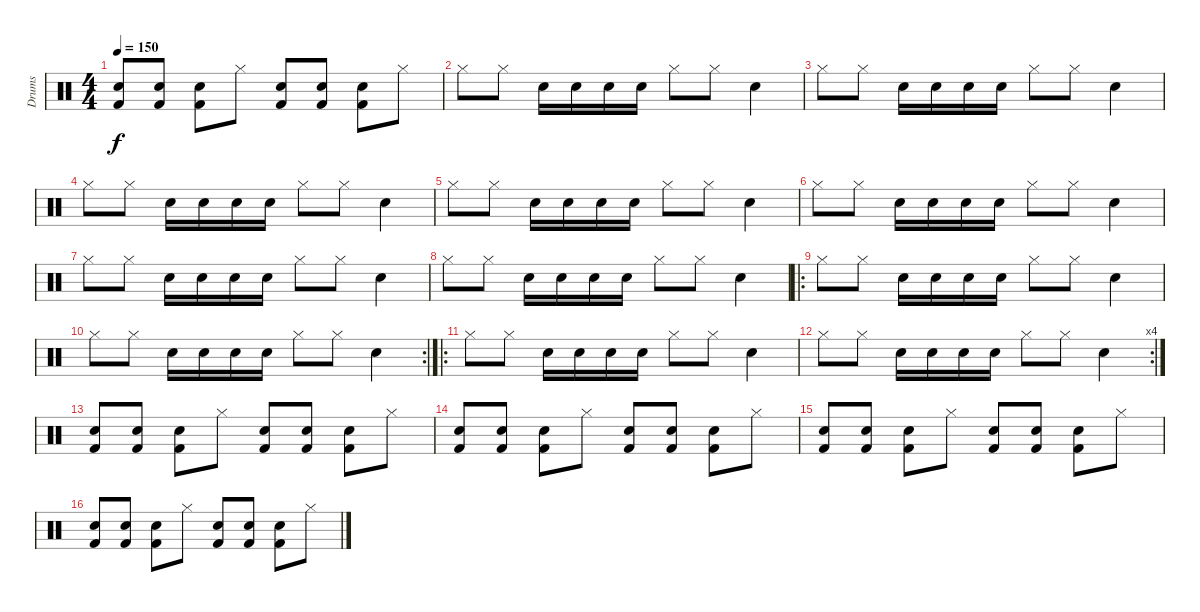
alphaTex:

\track ("Drums" "Drums") {instrument percussion}
\staff {score}
\articulation defaults
\ts (4 4)
\tempo 150
\clef neutral
\ks c
("Snare (hit) 2" "Kick (hit) 2").8{dy f} ("Snare (hit) 2" "Kick (hit) 2").8 ("Snare (hit) 2" "Kick (hit) 2").8 "Hi-Hat (closed)".8 ("Snare (hit) 2" "Kick (hit) 2").8 ("Snare (hit) 2" "Kick (hit) 2").8 ("Snare (hit) 2" "Kick (hit) 2").8 "Hi-Hat (closed)".8 |
"Hi-Hat (closed)".8 "Hi-Hat (closed)".8 "Snare (hit) 2".16 "Snare (hit) 2".16 "Snare (hit) 2".16 "Snare (hit) 2".16 "Hi-Hat (closed)".8 "Hi-Hat (closed)".8 "Snare (hit) 2".4 |
"Hi-Hat (closed)".8 "Hi-Hat (closed)".8 "Snare (hit) 2".16 "Snare (hit) 2".16 "Snare (hit) 2".16 "Snare (hit) 2".16 "Hi-Hat (closed)".8 "Hi-Hat (closed)".8 "Snare (hit) 2".4 |
"Hi-Hat (closed)".8 "Hi-Hat (closed)".8 "Snare (hit) 2".16 "Snare (hit) 2".16 "Snare (hit) 2".16 "Snare (hit) 2".16 "Hi-Hat (closed)".8 "Hi-Hat (closed)".8 "Snare (hit) 2".4 |
"Hi-Hat (closed)".8 "Hi-Hat (closed)".8 "Snare (hit) 2".16 "Snare (hit) 2".16 "Snare (hit) 2".16 "Snare (hit) 2".16 "Hi-Hat (closed)".8 "Hi-Hat (closed)".8 "Snare (hit) 2".4 |
"Hi-Hat (closed)".8 "Hi-Hat (closed)".8 "Snare (hit) 2".16 "Snare (hit) 2".16 "Snare (hit) 2".16 "Snare (hit) 2".16 "Hi-Hat (closed)".8 "Hi-Hat (closed)".8 "Snare (hit) 2".4 |
"Hi-Hat (closed)".8 "Hi-Hat (closed)".8 "Snare (hit) 2".16 "Snare (hit) 2".16 "Snare (hit) 2".16 "Snare (hit) 2".16 "Hi-Hat (closed)".8 "Hi-Hat (closed)".8 "Snare (hit) 2".4 |
"Hi-Hat (closed)".8 "Hi-Hat (closed)".8 "Snare (hit) 2".16 "Snare (hit) 2".16 "Snare (hit) 2".16 "Snare (hit) 2".16 "Hi-Hat (closed)".8 "Hi-Hat (closed)".8 "Snare (hit) 2".4 |
\ro "Hi-Hat (closed)".8 "Hi-Hat (closed)".8 "Snare (hit) 2".16 "Snare (hit) 2".16 "Snare (hit) 2".16 "Snare (hit) 2".16 "Hi-Hat (closed)".8 "Hi-Hat (closed)".8 "Snare (hit) 2".4
|
\rc 2 "Hi-Hat (closed)".8 "Hi-Hat (closed)".8 "Snare (hit) 2".16 "Snare (hit) 2".16 "Snare (hit) 2".16 "Snare (hit) 2".16 "Hi-Hat (closed)".8 "Hi-Hat (closed)".8 "Snare (hit) 2".4
|
\ro "Hi-Hat (closed)".8 "Hi-Hat (closed)".8 "Snare (hit) 2".16 "Snare (hit) 2".16 "Snare (hit) 2".16 "Snare (hit) 2".16 "Hi-Hat (closed)".8 "Hi-Hat (closed)".8 "Snare (hit) 2".4
|
\rc 4 "Hi-Hat (closed)".8 "Hi-Hat (closed)".8 "Snare (hit) 2".16 "Snare (hit) 2".16 "Snare (hit) 2".16 "Snare (hit) 2".16 "Hi-Hat (closed)".8 "Hi-Hat (closed)".8 "Snare (hit) 2".4
|
("Snare (hit) 2" "Kick (hit) 2").8 ("Snare (hit) 2" "Kick (hit) 2").8 ("Snare (hit) 2" "Kick (hit) 2").8 "Hi-Hat (closed)".8 ("Snare (hit) 2" "Kick (hit) 2").8 ("Snare (hit) 2" "Kick (hit) 2").8 ("Snare (hit) 2" "Kick (hit) 2").8 "Hi-Hat (closed)".8 |
("Snare (hit) 2" "Kick (hit) 2").8 ("Snare (hit) 2" "Kick (hit) 2").8 ("Snare (hit) 2" "Kick (hit) 2").8 "Hi-Hat (closed)".8 ("Snare (hit) 2" "Kick (hit) 2").8 ("Snare (hit) 2" "Kick (hit) 2").8 ("Snare (hit) 2" "Kick (hit) 2").8 "Hi-Hat (closed)".8 |
("Snare (hit) 2" "Kick (hit) 2").8 ("Snare (hit) 2" "Kick (hit) 2").8 ("Snare (hit) 2" "Kick (hit) 2").8 "Hi-Hat (closed)".8 ("Snare (hit) 2" "Kick (hit) 2").8 ("Snare (hit) 2" "Kick (hit) 2").8 ("Snare (hit) 2" "Kick (hit) 2").8 "Hi-Hat (closed)".8 |
("Snare (hit) 2" "Kick (hit) 2").8 ("Snare (hit) 2" "Kick (hit) 2").8 ("Snare (hit) 2" "Kick (hit) 2").8 "Hi-Hat (closed)".8 ("Snare (hit) 2" "Kick (hit) 2").8 ("Snare (hit) 2" "Kick (hit) 2").8 ("Snare (hit) 2" "Kick (hit) 2").8 "Hi-Hat (closed)".8
